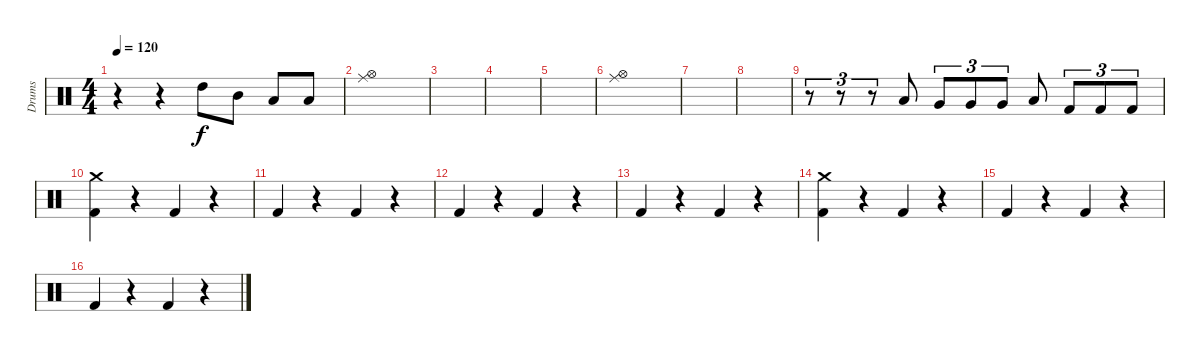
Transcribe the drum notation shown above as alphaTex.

\track ("Drums" "Drums") {instrument percussion}
\staff {score}
\articulation defaults
\ts (4 4)
\tempo 120
\clef neutral
\ks c
r.4{dy fff} r.4 "High Tom (hit)".8{dy f} "Mid Tom (hit)".8 "Low Tom (hit)".8 "Low Floor Tom (hit)".8 |
("Hi-Hat (open)" "Ride (middle)").1 |
|
|
|
("Hi-Hat (open)" "Ride (middle)").1 |
|
|
r.8{tu (3 2)} r.8{tu (3 2)} r.8{tu (3 2)} "Low Floor Tom (hit)".8 "Very Low Tom (hit)".8{tu (3 2)} "Very Low Tom (hit)".8{tu (3 2)} "Very Low Tom (hit)".8{tu (3 2)} "Low Tom (hit)".8 "Kick (hit) 2".8{tu (3 2)} "Kick (hit) 2".8{tu (3 2)} "Kick (hit) 2".8{tu (3 2)} |
("Crash medium (hit)" "Kick (hit) 2").4 r.4 "Kick (hit) 2".4 r.4 |
"Kick (hit) 2".4 r.4 "Kick (hit) 2".4 r.4 |
"Kick (hit) 2".4 r.4 "Kick (hit) 2".4 r.4 |
"Kick (hit) 2".4 r.4 "Kick (hit) 2".4 r.4 |
("Crash medium (hit)" "Kick (hit) 2").4 r.4 "Kick (hit) 2".4 r.4 |
"Kick (hit) 2".4 r.4 "Kick (hit) 2".4 r.4 |
"Kick (hit) 2".4 r.4 "Kick (hit) 2".4 r.4
